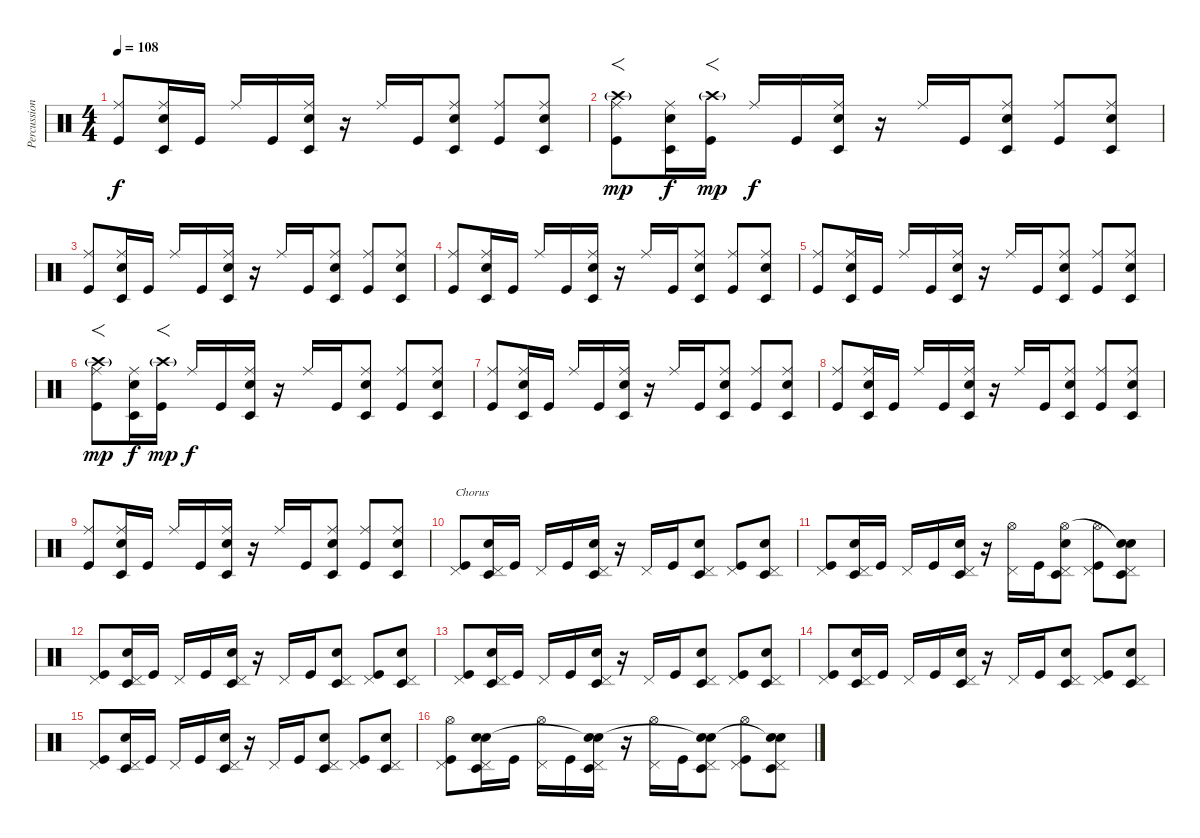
\track ("Percussion" "Percussion") {instrument percussion}
\staff {score}
\articulation defaults
\ts (4 4)
\tempo 108
\clef neutral
\ks c
("Ride (middle)" "Kick (hit)").8{dy f} ("Ride (middle)" "Electric Snare (hit)" "Timbale low (hit)").16 "Kick (hit)".16 "Ride (middle)".16 "Kick (hit)".16 ("Ride (middle)" "Timbale low (hit)" "Electric Snare (hit)").16 r.16 "Ride (middle)".16 "Kick (hit)".16 ("Ride (middle)" "Electric Snare (hit)" "Timbale low (hit)").8 ("Ride (middle)" "Kick (hit)").8 ("Ride (middle)" "Electric Snare (hit)" "Timbale low (hit)").8 |
("Ride (middle)" "Crash high (hit)"{g} "Kick (hit)").8{f dy mp} ("Ride (middle)" "Electric Snare (hit)" "Timbale low (hit)").16{dy f} ("Crash high (hit)"{g} "Kick (hit)").16{f dy mp} "Ride (middle)".16{dy f} "Kick (hit)".16 ("Ride (middle)" "Timbale low (hit)" "Electric Snare (hit)").16 r.16 "Ride (middle)".16 "Kick (hit)".16 ("Ride (middle)" "Electric Snare (hit)" "Timbale low (hit)").8 ("Ride (middle)" "Kick (hit)").8 ("Ride (middle)" "Electric Snare (hit)" "Timbale low (hit)").8 |
("Ride (middle)" "Kick (hit)").8 ("Ride (middle)" "Electric Snare (hit)" "Timbale low (hit)").16 "Kick (hit)".16 "Ride (middle)".16 "Kick (hit)".16 ("Ride (middle)" "Timbale low (hit)" "Electric Snare (hit)").16 r.16 "Ride (middle)".16 "Kick (hit)".16 ("Ride (middle)" "Electric Snare (hit)" "Timbale low (hit)").8 ("Ride (middle)" "Kick (hit)").8 ("Ride (middle)" "Electric Snare (hit)" "Timbale low (hit)").8 |
("Ride (middle)" "Kick (hit)").8 ("Ride (middle)" "Electric Snare (hit)" "Timbale low (hit)").16 "Kick (hit)".16 "Ride (middle)".16 "Kick (hit)".16 ("Ride (middle)" "Timbale low (hit)" "Electric Snare (hit)").16 r.16 "Ride (middle)".16 "Kick (hit)".16 ("Ride (middle)" "Electric Snare (hit)" "Timbale low (hit)").8 ("Ride (middle)" "Kick (hit)").8 ("Ride (middle)" "Electric Snare (hit)" "Timbale low (hit)").8 |
("Ride (middle)" "Kick (hit)").8 ("Ride (middle)" "Electric Snare (hit)" "Timbale low (hit)").16 "Kick (hit)".16 "Ride (middle)".16 "Kick (hit)".16 ("Ride (middle)" "Timbale low (hit)" "Electric Snare (hit)").16 r.16 "Ride (middle)".16 "Kick (hit)".16 ("Ride (middle)" "Electric Snare (hit)" "Timbale low (hit)").8 ("Ride (middle)" "Kick (hit)").8 ("Ride (middle)" "Electric Snare (hit)" "Timbale low (hit)").8 |
("Ride (middle)" "Crash high (hit)"{g} "Kick (hit)").8{f dy mp} ("Ride (middle)" "Electric Snare (hit)" "Timbale low (hit)").16{dy f} ("Crash high (hit)"{g} "Kick (hit)").16{f dy mp} "Ride (middle)".16{dy f} "Kick (hit)".16 ("Ride (middle)" "Timbale low (hit)" "Electric Snare (hit)").16 r.16 "Ride (middle)".16 "Kick (hit)".16 ("Ride (middle)" "Electric Snare (hit)" "Timbale low (hit)").8 ("Ride (middle)" "Kick (hit)").8 ("Ride (middle)" "Electric Snare (hit)" "Timbale low (hit)").8 |
("Ride (middle)" "Kick (hit)").8 ("Ride (middle)" "Electric Snare (hit)" "Timbale low (hit)").16 "Kick (hit)".16 "Ride (middle)".16 "Kick (hit)".16 ("Ride (middle)" "Timbale low (hit)" "Electric Snare (hit)").16 r.16 "Ride (middle)".16 "Kick (hit)".16 ("Ride (middle)" "Electric Snare (hit)" "Timbale low (hit)").8 ("Ride (middle)" "Kick (hit)").8 ("Ride (middle)" "Electric Snare (hit)" "Timbale low (hit)").8 |
("Ride (middle)" "Kick (hit)").8 ("Ride (middle)" "Electric Snare (hit)" "Timbale low (hit)").16 "Kick (hit)".16 "Ride (middle)".16 "Kick (hit)".16 ("Ride (middle)" "Timbale low (hit)" "Electric Snare (hit)").16 r.16 "Ride (middle)".16 "Kick (hit)".16 ("Ride (middle)" "Electric Snare (hit)" "Timbale low (hit)").8 ("Ride (middle)" "Kick (hit)").8 ("Ride (middle)" "Electric Snare (hit)" "Timbale low (hit)").8 |
("Ride (middle)" "Kick (hit)").8 ("Ride (middle)" "Electric Snare (hit)" "Timbale low (hit)").16 "Kick (hit)".16 "Ride (middle)".16 "Kick (hit)".16 ("Ride (middle)" "Timbale low (hit)" "Electric Snare (hit)").16 r.16 "Ride (middle)".16 "Kick (hit)".16 ("Ride (middle)" "Electric Snare (hit)" "Timbale low (hit)").8 ("Ride (middle)" "Kick (hit)").8 ("Ride (middle)" "Electric Snare (hit)" "Timbale low (hit)").8 |
("Pedal Hi-Hat (hit)" "Kick (hit)").8{txt "Chorus"} ("Pedal Hi-Hat (hit)" "Electric Snare (hit)" "Timbale low (hit)").16 "Kick (hit)".16 "Pedal Hi-Hat (hit)".16 "Kick (hit)".16 ("Pedal Hi-Hat (hit)" "Timbale low (hit)" "Electric Snare (hit)").16 r.16 "Pedal Hi-Hat (hit)".16 "Kick (hit)".16 ("Pedal Hi-Hat (hit)" "Electric Snare (hit)" "Timbale low (hit)").8 ("Pedal Hi-Hat (hit)" "Kick (hit)").8 ("Pedal Hi-Hat (hit)" "Electric Snare (hit)" "Timbale low (hit)").8 |
("Pedal Hi-Hat (hit)" "Kick (hit)").8 ("Pedal Hi-Hat (hit)" "Electric Snare (hit)" "Timbale low (hit)").16 "Kick (hit)".16 "Pedal Hi-Hat (hit)".16 "Kick (hit)".16 ("Pedal Hi-Hat (hit)" "Timbale low (hit)" "Electric Snare (hit)").16 r.16 ("Pedal Hi-Hat (hit)" "Hi-Hat (open)").16 "Kick (hit)".16 ("Pedal Hi-Hat (hit)" "Electric Snare (hit)" "Timbale low (hit)" "Hi-Hat (open)").8 ("Pedal Hi-Hat (hit)" "Hi-Hat (open)" "Kick (hit)").8 ("Pedal Hi-Hat (hit)" "Electric Snare (hit)" "Timbale low (hit)" "Snare (hit)"{t}).8 |
("Pedal Hi-Hat (hit)" "Kick (hit)").8 ("Pedal Hi-Hat (hit)" "Electric Snare (hit)" "Timbale low (hit)").16 "Kick (hit)".16 "Pedal Hi-Hat (hit)".16 "Kick (hit)".16 ("Pedal Hi-Hat (hit)" "Timbale low (hit)" "Electric Snare (hit)").16 r.16 "Pedal Hi-Hat (hit)".16 "Kick (hit)".16 ("Pedal Hi-Hat (hit)" "Electric Snare (hit)" "Timbale low (hit)").8 ("Pedal Hi-Hat (hit)" "Kick (hit)").8 ("Pedal Hi-Hat (hit)" "Electric Snare (hit)" "Timbale low (hit)").8 |
("Pedal Hi-Hat (hit)" "Kick (hit)").8 ("Pedal Hi-Hat (hit)" "Electric Snare (hit)" "Timbale low (hit)").16 "Kick (hit)".16 "Pedal Hi-Hat (hit)".16 "Kick (hit)".16 ("Pedal Hi-Hat (hit)" "Timbale low (hit)" "Electric Snare (hit)").16 r.16 "Pedal Hi-Hat (hit)".16 "Kick (hit)".16 ("Pedal Hi-Hat (hit)" "Electric Snare (hit)" "Timbale low (hit)").8 ("Pedal Hi-Hat (hit)" "Kick (hit)").8 ("Pedal Hi-Hat (hit)" "Electric Snare (hit)" "Timbale low (hit)").8 |
("Pedal Hi-Hat (hit)" "Kick (hit)").8 ("Pedal Hi-Hat (hit)" "Electric Snare (hit)" "Timbale low (hit)").16 "Kick (hit)".16 "Pedal Hi-Hat (hit)".16 "Kick (hit)".16 ("Pedal Hi-Hat (hit)" "Timbale low (hit)" "Electric Snare (hit)").16 r.16 "Pedal Hi-Hat (hit)".16 "Kick (hit)".16 ("Pedal Hi-Hat (hit)" "Electric Snare (hit)" "Timbale low (hit)").8 ("Pedal Hi-Hat (hit)" "Kick (hit)").8 ("Pedal Hi-Hat (hit)" "Electric Snare (hit)" "Timbale low (hit)").8 |
("Pedal Hi-Hat (hit)" "Kick (hit)").8 ("Pedal Hi-Hat (hit)" "Electric Snare (hit)" "Timbale low (hit)").16 "Kick (hit)".16 "Pedal Hi-Hat (hit)".16 "Kick (hit)".16 ("Pedal Hi-Hat (hit)" "Timbale low (hit)" "Electric Snare (hit)").16 r.16 "Pedal Hi-Hat (hit)".16 "Kick (hit)".16 ("Pedal Hi-Hat (hit)" "Electric Snare (hit)" "Timbale low (hit)").8 ("Pedal Hi-Hat (hit)" "Kick (hit)").8 ("Pedal Hi-Hat (hit)" "Electric Snare (hit)" "Timbale low (hit)").8 |
("Pedal Hi-Hat (hit)" "Hi-Hat (open)" "Kick (hit)").8 ("Pedal Hi-Hat (hit)" "Electric Snare (hit)" "Timbale low (hit)" "Snare (hit)").16 "Kick (hit)".16 ("Pedal Hi-Hat (hit)" "Hi-Hat (open)").16 "Kick (hit)".16 ("Pedal Hi-Hat (hit)" "Timbale low (hit)" "Electric Snare (hit)" "Snare (hit)"{t}).16 r.16 ("Pedal Hi-Hat (hit)" "Hi-Hat (open)").16 "Kick (hit)".16 ("Pedal Hi-Hat (hit)" "Electric Snare (hit)" "Timbale low (hit)" "Snare (hit)"{t}).8 ("Pedal Hi-Hat (hit)" "Hi-Hat (open)" "Kick (hit)").8 ("Pedal Hi-Hat (hit)" "Electric Snare (hit)" "Timbale low (hit)" "Snare (hit)"{t}).8
